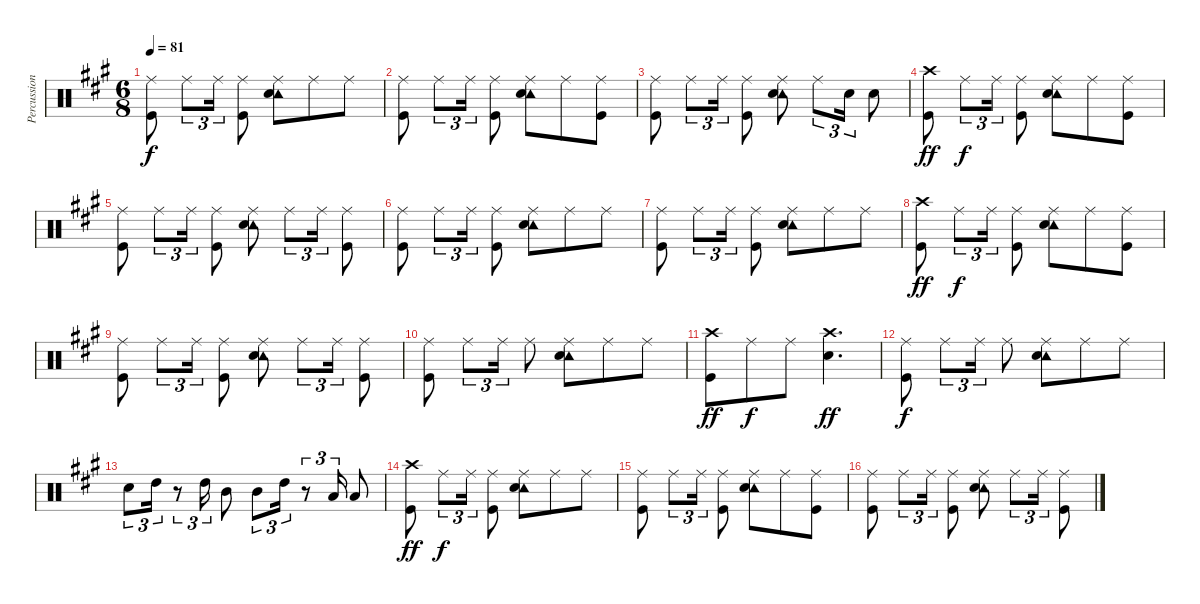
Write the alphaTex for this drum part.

\track ("Percussion" "Percussion") {instrument percussion}
\staff {score}
\articulation defaults
\ts (6 8)
\tempo 81
\clef neutral
\ks a
("Ride (middle)" "Kick (hit)").8{dy f} "Ride (middle)".8{tu (3 2)} "Ride (middle)".16{tu (3 2)} ("Ride (middle)" "Kick (hit)").8 ("Ride (middle)" "Tambourine (hit)" "Snare (hit) 2").8 "Ride (middle)".8 "Ride (middle)".8 |
("Ride (middle)" "Kick (hit)").8 "Ride (middle)".8{tu (3 2)} "Ride (middle)".16{tu (3 2)} ("Ride (middle)" "Kick (hit)").8 ("Ride (middle)" "Tambourine (hit)" "Snare (hit) 2").8 "Ride (middle)".8 ("Ride (middle)" "Kick (hit)").8 |
("Ride (middle)" "Kick (hit)").8 "Ride (middle)".8{tu (3 2)} "Ride (middle)".16{tu (3 2)} ("Ride (middle)" "Kick (hit)").8 ("Ride (middle)" "Tambourine (hit)" "Snare (hit) 2").8 "Ride (middle)".8{tu (3 2)} "Snare (hit) 2".16{tu (3 2)} "Snare (hit) 2".8 |
("Crash high (hit)" "Kick (hit)").8{dy ff} "Ride (middle)".8{tu (3 2) dy f} "Ride (middle)".16{tu (3 2)} ("Ride (middle)" "Kick (hit)").8 ("Ride (middle)" "Tambourine (hit)" "Snare (hit) 2").8 "Ride (middle)".8 ("Ride (middle)" "Kick (hit)").8 |
("Ride (middle)" "Kick (hit)").8 "Ride (middle)".8{tu (3 2)} "Ride (middle)".16{tu (3 2)} ("Ride (middle)" "Kick (hit)").8 ("Ride (middle)" "Tambourine (hit)" "Snare (hit) 2").8 "Ride (middle)".8{tu (3 2)} "Ride (middle)".16{tu (3 2)} ("Ride (middle)" "Kick (hit)").8 |
("Ride (middle)" "Kick (hit)").8 "Ride (middle)".8{tu (3 2)} "Ride (middle)".16{tu (3 2)} ("Ride (middle)" "Kick (hit)").8 ("Ride (middle)" "Tambourine (hit)" "Snare (hit) 2").8 "Ride (middle)".8 "Ride (middle)".8 |
("Ride (middle)" "Kick (hit)").8 "Ride (middle)".8{tu (3 2)} "Ride (middle)".16{tu (3 2)} ("Ride (middle)" "Kick (hit)").8 ("Ride (middle)" "Tambourine (hit)" "Snare (hit) 2").8 "Ride (middle)".8 "Ride (middle)".8 |
("Crash high (hit)" "Kick (hit)").8{dy ff} "Ride (middle)".8{tu (3 2) dy f} "Ride (middle)".16{tu (3 2)} ("Ride (middle)" "Kick (hit)").8 ("Ride (middle)" "Tambourine (hit)" "Snare (hit) 2").8 "Ride (middle)".8 ("Ride (middle)" "Kick (hit)").8 |
("Ride (middle)" "Kick (hit)").8 "Ride (middle)".8{tu (3 2)} "Ride (middle)".16{tu (3 2)} ("Ride (middle)" "Kick (hit)").8 ("Ride (middle)" "Tambourine (hit)" "Snare (hit) 2").8 "Ride (middle)".8{tu (3 2)} "Ride (middle)".16{tu (3 2)} ("Ride (middle)" "Kick (hit)").8 |
("Ride (middle)" "Kick (hit)").8 "Ride (middle)".8{tu (3 2)} "Ride (middle)".16{tu (3 2)} "Ride (middle)".8 ("Ride (middle)" "Tambourine (hit)" "Snare (hit) 2").8 "Ride (middle)".8 "Ride (middle)".8 |
("Crash high (hit)" "Kick (hit)").8{dy ff} "Ride (middle)".8{dy f} "Ride (middle)".8 ("Crash high (hit)" "Snare (hit) 2").4{d dy ff} |
("Ride (middle)" "Kick (hit)").8{dy f} "Ride (middle)".8{tu (3 2)} "Ride (middle)".16{tu (3 2)} "Ride (middle)".8 ("Ride (middle)" "Tambourine (hit)" "Snare (hit) 2").8 "Ride (middle)".8 "Ride (middle)".8 |
"Snare (hit) 2".8{tu (3 2)} "High Tom (hit)".16{tu (3 2)} r.8{tu (3 2)} "High Tom (hit)".16{tu (3 2)} "Mid Tom (hit)".8 "Mid Tom (hit)".8{tu (3 2)} "High Tom (hit)".16{tu (3 2)} r.8{tu (3 2)} "Low Tom (hit)".16{tu (3 2)} "Low Floor Tom (hit)".8 |
("Crash high (hit)" "Kick (hit)").8{dy ff} "Ride (middle)".8{tu (3 2) dy f} "Ride (middle)".16{tu (3 2)} ("Ride (middle)" "Kick (hit)").8 ("Ride (middle)" "Tambourine (hit)" "Snare (hit) 2").8 "Ride (middle)".8 "Ride (middle)".8 |
("Ride (middle)" "Kick (hit)").8 "Ride (middle)".8{tu (3 2)} "Ride (middle)".16{tu (3 2)} ("Ride (middle)" "Kick (hit)").8 ("Ride (middle)" "Tambourine (hit)" "Snare (hit) 2").8 "Ride (middle)".8 ("Ride (middle)" "Kick (hit)").8 |
("Ride (middle)" "Kick (hit)").8 "Ride (middle)".8{tu (3 2)} "Ride (middle)".16{tu (3 2)} ("Ride (middle)" "Kick (hit)").8 ("Ride (middle)" "Tambourine (hit)" "Snare (hit) 2").8 "Ride (middle)".8{tu (3 2)} "Ride (middle)".16{tu (3 2)} ("Ride (middle)" "Kick (hit)").8
